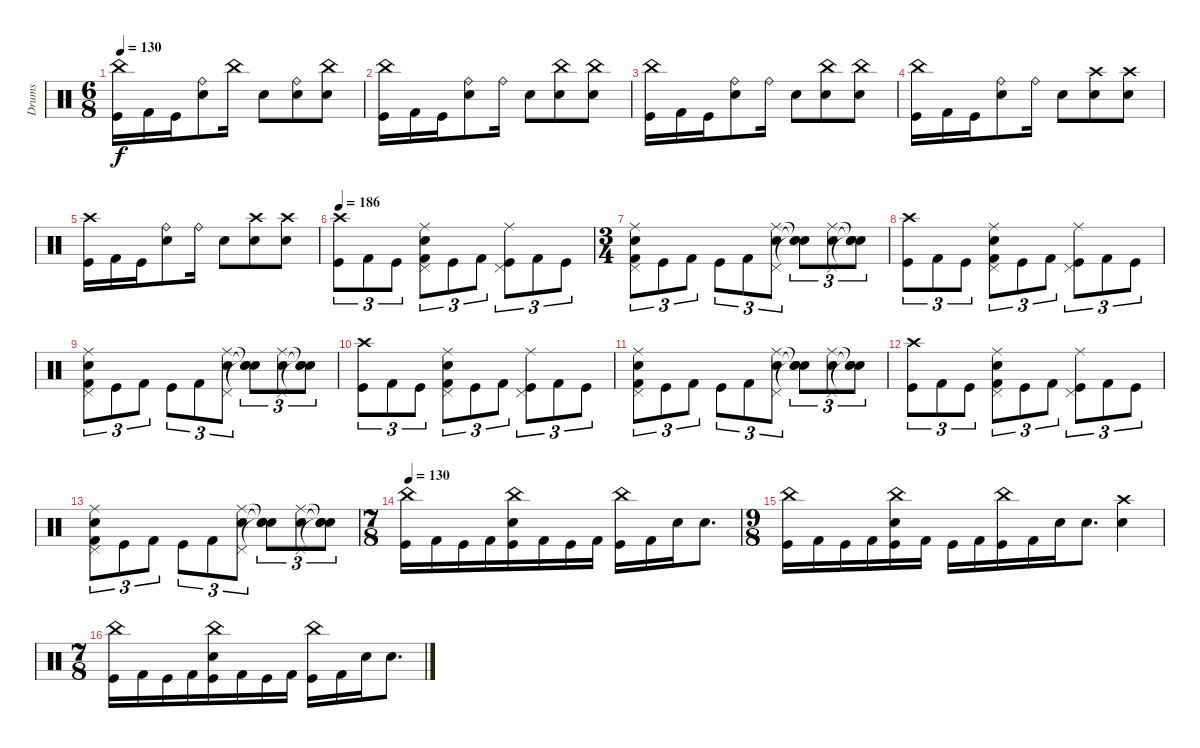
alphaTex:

\track ("Drums" "Drums") {instrument percussion}
\staff {score}
\articulation defaults
\ts (6 8)
\tempo 130
\clef neutral
\ks c
("China (hit)" "Kick (hit)").16{dy f} "Kick (hit) 2".16 "Kick (hit)".16 ("Ride (bell)" "Snare (hit) 2").8 "China (hit)".16 "Snare (hit) 2".8 ("Ride (bell)" "Snare (hit) 2").8 ("China (hit)" "Snare (hit) 2").8 |
("China (hit)" "Kick (hit)").16 "Kick (hit) 2".16 "Kick (hit)".16 ("Ride (bell)" "Snare (hit) 2").8 "Ride (bell)".16 "Snare (hit) 2".8 ("China (hit)" "Snare (hit) 2").8 ("China (hit)" "Snare (hit) 2").8 |
("China (hit)" "Kick (hit)").16 "Kick (hit) 2".16 "Kick (hit)".16 ("Ride (bell)" "Snare (hit) 2").8 "Ride (bell)".16 "Snare (hit) 2".8 ("China (hit)" "Snare (hit) 2").8 ("China (hit)" "Snare (hit) 2").8 |
("China (hit)" "Kick (hit)").16 "Kick (hit) 2".16 "Kick (hit)".16 ("Ride (bell)" "Snare (hit) 2").8 "Ride (bell)".16 "Snare (hit) 2".8 ("Crash high (hit)" "Snare (hit) 2").8 ("Crash high (hit)" "Snare (hit) 2").8 |
("Crash high (hit)" "Kick (hit)").16 "Kick (hit) 2".16 "Kick (hit)".16 ("Ride (bell)" "Snare (hit) 2").8 "Ride (bell)".16 "Snare (hit) 2".8 ("Crash high (hit)" "Snare (hit) 2").8 ("Crash high (hit)" "Snare (hit) 2").8 |
\tempo 186
("Crash high (hit)" "Kick (hit)").8{tu (3 2)} "Kick (hit) 2".8{tu (3 2)} "Kick (hit)".8{tu (3 2)} ("Snare (hit) 2" "Pedal Hi-Hat (hit)" "Ride (middle)" "Kick (hit) 2").8{tu (3 2)} "Kick (hit)".8{tu (3 2)} "Kick (hit) 2".8{tu (3 2)} ("Pedal Hi-Hat (hit)" "Ride (middle)" "Kick (hit)").8{tu (3 2)} "Kick (hit) 2".8{tu (3 2)} "Kick (hit)".8{tu (3 2)} |
\ts (3 4)
("Snare (hit) 2" "Pedal Hi-Hat (hit)" "Ride (middle)" "Kick (hit) 2").8{tu (3 2)} "Kick (hit)".8{tu (3 2)} "Kick (hit) 2".8{tu (3 2)} "Kick (hit)".8{tu (3 2)} "Kick (hit) 2".8{tu (3 2)} ("Snare (hit) 2" "Ride (middle)" "Pedal Hi-Hat (hit)").8{tu (3 2)} ("Snare (hit)"{t} "Snare (hit)"{t} "Snare (hit)"{t}).8{tu (3 2)} ("Snare (hit) 2" "Ride (middle)" "Pedal Hi-Hat (hit)").8{tu (3 2)} ("Snare (hit)"{t} "Snare (hit)"{t} "Snare (hit)"{t}).8{tu (3 2)} |
("Crash high (hit)" "Kick (hit)").8{tu (3 2)} "Kick (hit) 2".8{tu (3 2)} "Kick (hit)".8{tu (3 2)} ("Snare (hit) 2" "Pedal Hi-Hat (hit)" "Ride (middle)" "Kick (hit) 2").8{tu (3 2)} "Kick (hit)".8{tu (3 2)} "Kick (hit) 2".8{tu (3 2)} ("Pedal Hi-Hat (hit)" "Ride (middle)" "Kick (hit)").8{tu (3 2)} "Kick (hit) 2".8{tu (3 2)} "Kick (hit)".8{tu (3 2)} |
("Snare (hit) 2" "Pedal Hi-Hat (hit)" "Ride (middle)" "Kick (hit) 2").8{tu (3 2)} "Kick (hit)".8{tu (3 2)} "Kick (hit) 2".8{tu (3 2)} "Kick (hit)".8{tu (3 2)} "Kick (hit) 2".8{tu (3 2)} ("Snare (hit) 2" "Ride (middle)" "Pedal Hi-Hat (hit)").8{tu (3 2)} ("Snare (hit)"{t} "Snare (hit)"{t} "Snare (hit)"{t}).8{tu (3 2)} ("Snare (hit) 2" "Ride (middle)" "Pedal Hi-Hat (hit)").8{tu (3 2)} ("Snare (hit)"{t} "Snare (hit)"{t} "Snare (hit)"{t}).8{tu (3 2)} |
("Crash high (hit)" "Kick (hit)").8{tu (3 2)} "Kick (hit) 2".8{tu (3 2)} "Kick (hit)".8{tu (3 2)} ("Snare (hit) 2" "Pedal Hi-Hat (hit)" "Ride (middle)" "Kick (hit) 2").8{tu (3 2)} "Kick (hit)".8{tu (3 2)} "Kick (hit) 2".8{tu (3 2)} ("Pedal Hi-Hat (hit)" "Ride (middle)" "Kick (hit)").8{tu (3 2)} "Kick (hit) 2".8{tu (3 2)} "Kick (hit)".8{tu (3 2)} |
("Snare (hit) 2" "Pedal Hi-Hat (hit)" "Ride (middle)" "Kick (hit) 2").8{tu (3 2)} "Kick (hit)".8{tu (3 2)} "Kick (hit) 2".8{tu (3 2)} "Kick (hit)".8{tu (3 2)} "Kick (hit) 2".8{tu (3 2)} ("Snare (hit) 2" "Ride (middle)" "Pedal Hi-Hat (hit)").8{tu (3 2)} ("Snare (hit)"{t} "Snare (hit)"{t} "Snare (hit)"{t}).8{tu (3 2)} ("Snare (hit) 2" "Ride (middle)" "Pedal Hi-Hat (hit)").8{tu (3 2)} ("Snare (hit)"{t} "Snare (hit)"{t} "Snare (hit)"{t}).8{tu (3 2)} |
("Crash high (hit)" "Kick (hit)").8{tu (3 2)} "Kick (hit) 2".8{tu (3 2)} "Kick (hit)".8{tu (3 2)} ("Snare (hit) 2" "Pedal Hi-Hat (hit)" "Ride (middle)" "Kick (hit) 2").8{tu (3 2)} "Kick (hit)".8{tu (3 2)} "Kick (hit) 2".8{tu (3 2)} ("Pedal Hi-Hat (hit)" "Ride (middle)" "Kick (hit)").8{tu (3 2)} "Kick (hit) 2".8{tu (3 2)} "Kick (hit)".8{tu (3 2)} |
("Snare (hit) 2" "Pedal Hi-Hat (hit)" "Ride (middle)" "Kick (hit) 2").8{tu (3 2)} "Kick (hit)".8{tu (3 2)} "Kick (hit) 2".8{tu (3 2)} "Kick (hit)".8{tu (3 2)} "Kick (hit) 2".8{tu (3 2)} ("Snare (hit) 2" "Ride (middle)" "Pedal Hi-Hat (hit)").8{tu (3 2)} ("Snare (hit)"{t} "Snare (hit)"{t} "Snare (hit)"{t}).8{tu (3 2)} ("Snare (hit) 2" "Ride (middle)" "Pedal Hi-Hat (hit)").8{tu (3 2)} ("Snare (hit)"{t} "Snare (hit)"{t} "Snare (hit)"{t}).8{tu (3 2)} |
\ts (7 8)
\tempo 130
("China (hit)" "Kick (hit)").16 "Kick (hit) 2".16 "Kick (hit)".16 "Kick (hit) 2".16 ("China (hit)" "Kick (hit)" "Snare (hit) 2").16 "Kick (hit) 2".16 "Kick (hit)".16 "Kick (hit) 2".16 ("China (hit)" "Kick (hit)").16 "Kick (hit) 2".16 "Snare (hit) 2".16 "Snare (hit) 2".8{d} |
\ts (9 8)
("China (hit)" "Kick (hit)").16 "Kick (hit) 2".16 "Kick (hit)".16 "Kick (hit) 2".16 ("China (hit)" "Kick (hit)" "Snare (hit) 2").16 "Kick (hit) 2".16 "Kick (hit)".16 "Kick (hit) 2".16 ("China (hit)" "Kick (hit)").16 "Kick (hit) 2".16 "Snare (hit) 2".16 "Snare (hit) 2".8{d} ("Crash high (hit)" "Snare (hit) 2").4 |
\ts (7 8)
("China (hit)" "Kick (hit)").16 "Kick (hit) 2".16 "Kick (hit)".16 "Kick (hit) 2".16 ("China (hit)" "Kick (hit)" "Snare (hit) 2").16 "Kick (hit) 2".16 "Kick (hit)".16 "Kick (hit) 2".16 ("China (hit)" "Kick (hit)").16 "Kick (hit) 2".16 "Snare (hit) 2".16 "Snare (hit) 2".8{d}
